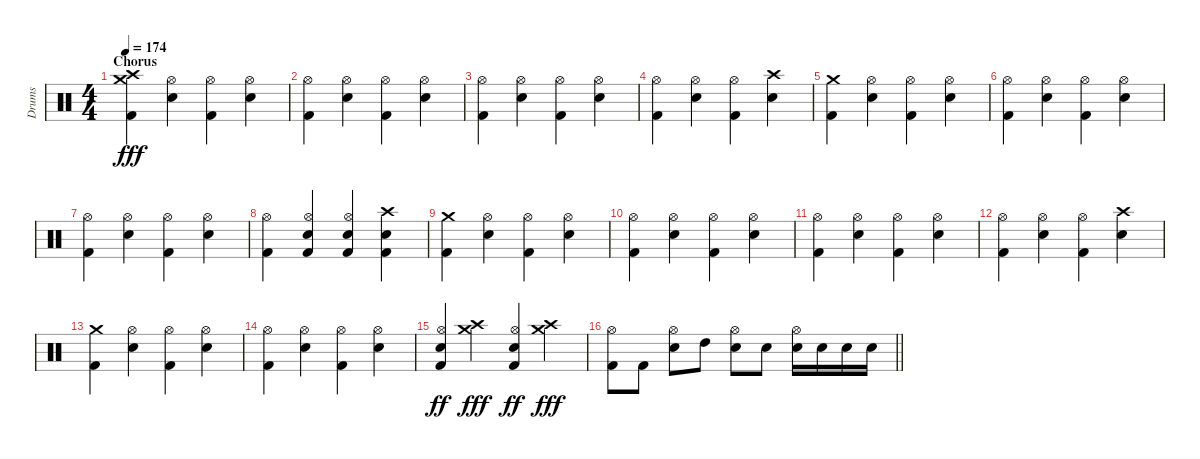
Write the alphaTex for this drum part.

\track ("Drums" "Drums") {instrument percussion}
\staff {score}
\articulation defaults
\ts (4 4)
\section ("" "Chorus")
\tempo 174
\clef neutral
\ks c
("Crash high (hit)" "Crash medium (hit)" "Kick (hit) 2").4{dy fff} ("Hi-Hat (open)" "Electric Snare (hit)").4 ("Hi-Hat (open)" "Kick (hit) 2").4 ("Hi-Hat (open)" "Electric Snare (hit)").4 |
("Hi-Hat (open)" "Kick (hit) 2").4 ("Hi-Hat (open)" "Electric Snare (hit)").4 ("Hi-Hat (open)" "Kick (hit) 2").4 ("Hi-Hat (open)" "Electric Snare (hit)").4 |
("Hi-Hat (open)" "Kick (hit) 2").4 ("Hi-Hat (open)" "Electric Snare (hit)").4 ("Hi-Hat (open)" "Kick (hit) 2").4 ("Hi-Hat (open)" "Electric Snare (hit)").4 |
("Hi-Hat (open)" "Kick (hit) 2").4 ("Hi-Hat (open)" "Electric Snare (hit)").4 ("Hi-Hat (open)" "Kick (hit) 2").4 ("Crash high (hit)" "Electric Snare (hit)").4 |
("Crash medium (hit)" "Kick (hit) 2").4 ("Hi-Hat (open)" "Electric Snare (hit)").4 ("Hi-Hat (open)" "Kick (hit) 2").4 ("Hi-Hat (open)" "Electric Snare (hit)").4 |
("Hi-Hat (open)" "Kick (hit) 2").4 ("Hi-Hat (open)" "Electric Snare (hit)").4 ("Hi-Hat (open)" "Kick (hit) 2").4 ("Hi-Hat (open)" "Electric Snare (hit)").4 |
("Hi-Hat (open)" "Kick (hit) 2").4 ("Hi-Hat (open)" "Electric Snare (hit)").4 ("Hi-Hat (open)" "Kick (hit) 2").4 ("Hi-Hat (open)" "Electric Snare (hit)").4 |
("Hi-Hat (open)" "Kick (hit) 2").4 ("Hi-Hat (open)" "Electric Snare (hit)" "Kick (hit) 2").4 ("Hi-Hat (open)" "Electric Snare (hit)" "Kick (hit) 2").4 ("Crash high (hit)" "Electric Snare (hit)" "Kick (hit) 2").4 |
("Crash medium (hit)" "Kick (hit) 2").4 ("Hi-Hat (open)" "Electric Snare (hit)").4 ("Hi-Hat (open)" "Kick (hit) 2").4 ("Hi-Hat (open)" "Electric Snare (hit)").4 |
("Hi-Hat (open)" "Kick (hit) 2").4 ("Hi-Hat (open)" "Electric Snare (hit)").4 ("Hi-Hat (open)" "Kick (hit) 2").4 ("Hi-Hat (open)" "Electric Snare (hit)").4 |
("Hi-Hat (open)" "Kick (hit) 2").4 ("Hi-Hat (open)" "Electric Snare (hit)").4 ("Hi-Hat (open)" "Kick (hit) 2").4 ("Hi-Hat (open)" "Electric Snare (hit)").4 |
("Hi-Hat (open)" "Kick (hit) 2").4 ("Hi-Hat (open)" "Electric Snare (hit)").4 ("Hi-Hat (open)" "Kick (hit) 2").4 ("Crash high (hit)" "Electric Snare (hit)").4 |
("Crash medium (hit)" "Kick (hit) 2").4 ("Hi-Hat (open)" "Electric Snare (hit)").4 ("Hi-Hat (open)" "Kick (hit) 2").4 ("Hi-Hat (open)" "Electric Snare (hit)").4 |
("Hi-Hat (open)" "Kick (hit) 2").4 ("Hi-Hat (open)" "Electric Snare (hit)").4 ("Hi-Hat (open)" "Kick (hit) 2").4 ("Hi-Hat (open)" "Electric Snare (hit)").4 |
("Hi-Hat (open)" "Electric Snare (hit)" "Kick (hit) 2").4{dy ff} ("Crash high (hit)" "Crash medium (hit)").4{dy fff} ("Hi-Hat (open)" "Electric Snare (hit)" "Kick (hit) 2").4{dy ff} ("Crash high (hit)" "Crash medium (hit)").4{dy fff} |
\barLineRight lightlight
("Hi-Hat (open)" "Kick (hit) 2").8 "Kick (hit) 2".8 ("Hi-Hat (open)" "Electric Snare (hit)").8 "High Tom (hit)".8 ("Hi-Hat (open)" "Electric Snare (hit)").8 "Electric Snare (hit)".8 ("Hi-Hat (open)" "Electric Snare (hit)").16 "Electric Snare (hit)".16 "Electric Snare (hit)".16 "Electric Snare (hit)".16
